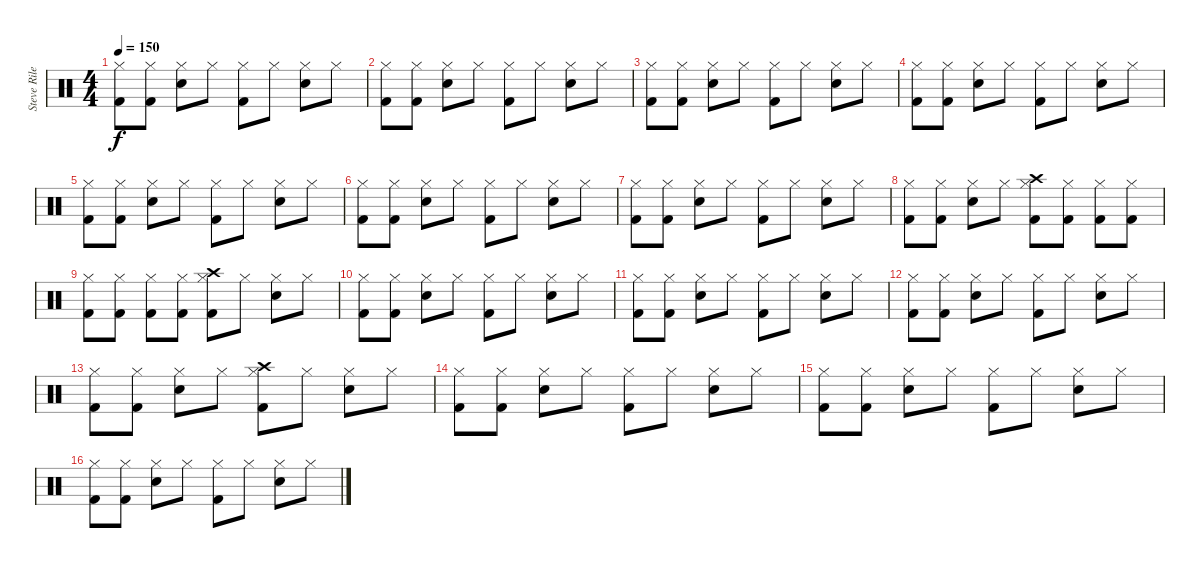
\track ("Steve Riley-Drums" "Steve Rile") {instrument percussion}
\staff {score}
\articulation defaults
\ts (4 4)
\tempo 150
\clef neutral
\ks c
("Kick (hit) 2" "Hi-Hat (closed)").8{dy f} ("Kick (hit) 2" "Hi-Hat (closed)").8 ("Snare (hit) 2" "Hi-Hat (closed)").8 "Hi-Hat (closed)".8 ("Kick (hit) 2" "Hi-Hat (closed)").8 "Hi-Hat (closed)".8 ("Snare (hit) 2" "Hi-Hat (closed)").8 "Hi-Hat (closed)".8 |
("Kick (hit) 2" "Hi-Hat (closed)").8 ("Kick (hit) 2" "Hi-Hat (closed)").8 ("Snare (hit) 2" "Hi-Hat (closed)").8 "Hi-Hat (closed)".8 ("Kick (hit) 2" "Hi-Hat (closed)").8 "Hi-Hat (closed)".8 ("Snare (hit) 2" "Hi-Hat (closed)").8 "Hi-Hat (closed)".8 |
("Kick (hit) 2" "Hi-Hat (closed)").8 ("Kick (hit) 2" "Hi-Hat (closed)").8 ("Snare (hit) 2" "Hi-Hat (closed)").8 "Hi-Hat (closed)".8 ("Kick (hit) 2" "Hi-Hat (closed)").8 "Hi-Hat (closed)".8 ("Snare (hit) 2" "Hi-Hat (closed)").8 "Hi-Hat (closed)".8 |
("Kick (hit) 2" "Hi-Hat (closed)").8 ("Kick (hit) 2" "Hi-Hat (closed)").8 ("Snare (hit) 2" "Hi-Hat (closed)").8 "Hi-Hat (closed)".8 ("Kick (hit) 2" "Hi-Hat (closed)").8 "Hi-Hat (closed)".8 ("Snare (hit) 2" "Hi-Hat (closed)").8 "Hi-Hat (closed)".8 |
("Kick (hit) 2" "Hi-Hat (closed)").8 ("Kick (hit) 2" "Hi-Hat (closed)").8 ("Snare (hit) 2" "Hi-Hat (closed)").8 "Hi-Hat (closed)".8 ("Kick (hit) 2" "Hi-Hat (closed)").8 "Hi-Hat (closed)".8 ("Snare (hit) 2" "Hi-Hat (closed)").8 "Hi-Hat (closed)".8 |
("Kick (hit) 2" "Hi-Hat (closed)").8 ("Kick (hit) 2" "Hi-Hat (closed)").8 ("Snare (hit) 2" "Hi-Hat (closed)").8 "Hi-Hat (closed)".8 ("Kick (hit) 2" "Hi-Hat (closed)").8 "Hi-Hat (closed)".8 ("Snare (hit) 2" "Hi-Hat (closed)").8 "Hi-Hat (closed)".8 |
("Kick (hit) 2" "Hi-Hat (closed)").8 ("Kick (hit) 2" "Hi-Hat (closed)").8 ("Snare (hit) 2" "Hi-Hat (closed)").8 "Hi-Hat (closed)".8 ("Kick (hit) 2" "Hi-Hat (closed)").8 "Hi-Hat (closed)".8 ("Snare (hit) 2" "Hi-Hat (closed)").8 "Hi-Hat (closed)".8 |
("Kick (hit) 2" "Hi-Hat (closed)").8 ("Kick (hit) 2" "Hi-Hat (closed)").8 ("Snare (hit) 2" "Hi-Hat (closed)").8 "Hi-Hat (closed)".8 ("Crash high (hit)" "Kick (hit) 2" "Hi-Hat (closed)").8 ("Kick (hit) 2" "Hi-Hat (closed)").8 ("Kick (hit) 2" "Hi-Hat (closed)").8 ("Kick (hit) 2" "Hi-Hat (closed)").8 |
("Kick (hit) 2" "Hi-Hat (closed)").8 ("Kick (hit) 2" "Hi-Hat (closed)").8 ("Kick (hit) 2" "Hi-Hat (closed)").8 ("Kick (hit) 2" "Hi-Hat (closed)").8 ("Crash high (hit)" "Kick (hit) 2" "Hi-Hat (closed)").8 "Hi-Hat (closed)".8 ("Snare (hit) 2" "Hi-Hat (closed)").8 "Hi-Hat (closed)".8 |
("Kick (hit) 2" "Hi-Hat (closed)").8 ("Kick (hit) 2" "Hi-Hat (closed)").8 ("Snare (hit) 2" "Hi-Hat (closed)").8 "Hi-Hat (closed)".8 ("Kick (hit) 2" "Hi-Hat (closed)").8 "Hi-Hat (closed)".8 ("Snare (hit) 2" "Hi-Hat (closed)").8 "Hi-Hat (closed)".8 |
("Kick (hit) 2" "Hi-Hat (closed)").8 ("Kick (hit) 2" "Hi-Hat (closed)").8 ("Snare (hit) 2" "Hi-Hat (closed)").8 "Hi-Hat (closed)".8 ("Kick (hit) 2" "Hi-Hat (closed)").8 "Hi-Hat (closed)".8 ("Snare (hit) 2" "Hi-Hat (closed)").8 "Hi-Hat (closed)".8 |
("Kick (hit) 2" "Hi-Hat (closed)").8 ("Kick (hit) 2" "Hi-Hat (closed)").8 ("Snare (hit) 2" "Hi-Hat (closed)").8 "Hi-Hat (closed)".8 ("Kick (hit) 2" "Hi-Hat (closed)").8 "Hi-Hat (closed)".8 ("Snare (hit) 2" "Hi-Hat (closed)").8 "Hi-Hat (closed)".8 |
("Kick (hit) 2" "Hi-Hat (closed)").8 ("Kick (hit) 2" "Hi-Hat (closed)").8 ("Snare (hit) 2" "Hi-Hat (closed)").8 "Hi-Hat (closed)".8 ("Crash high (hit)" "Kick (hit) 2" "Hi-Hat (closed)").8 "Hi-Hat (closed)".8 ("Snare (hit) 2" "Hi-Hat (closed)").8 "Hi-Hat (closed)".8 |
("Kick (hit) 2" "Hi-Hat (closed)").8 ("Kick (hit) 2" "Hi-Hat (closed)").8 ("Snare (hit) 2" "Hi-Hat (closed)").8 "Hi-Hat (closed)".8 ("Kick (hit) 2" "Hi-Hat (closed)").8 "Hi-Hat (closed)".8 ("Snare (hit) 2" "Hi-Hat (closed)").8 "Hi-Hat (closed)".8 |
("Kick (hit) 2" "Hi-Hat (closed)").8 ("Kick (hit) 2" "Hi-Hat (closed)").8 ("Snare (hit) 2" "Hi-Hat (closed)").8 "Hi-Hat (closed)".8 ("Kick (hit) 2" "Hi-Hat (closed)").8 "Hi-Hat (closed)".8 ("Snare (hit) 2" "Hi-Hat (closed)").8 "Hi-Hat (closed)".8 |
("Kick (hit) 2" "Hi-Hat (closed)").8 ("Kick (hit) 2" "Hi-Hat (closed)").8 ("Snare (hit) 2" "Hi-Hat (closed)").8 "Hi-Hat (closed)".8 ("Kick (hit) 2" "Hi-Hat (closed)").8 "Hi-Hat (closed)".8 ("Snare (hit) 2" "Hi-Hat (closed)").8 "Hi-Hat (closed)".8
